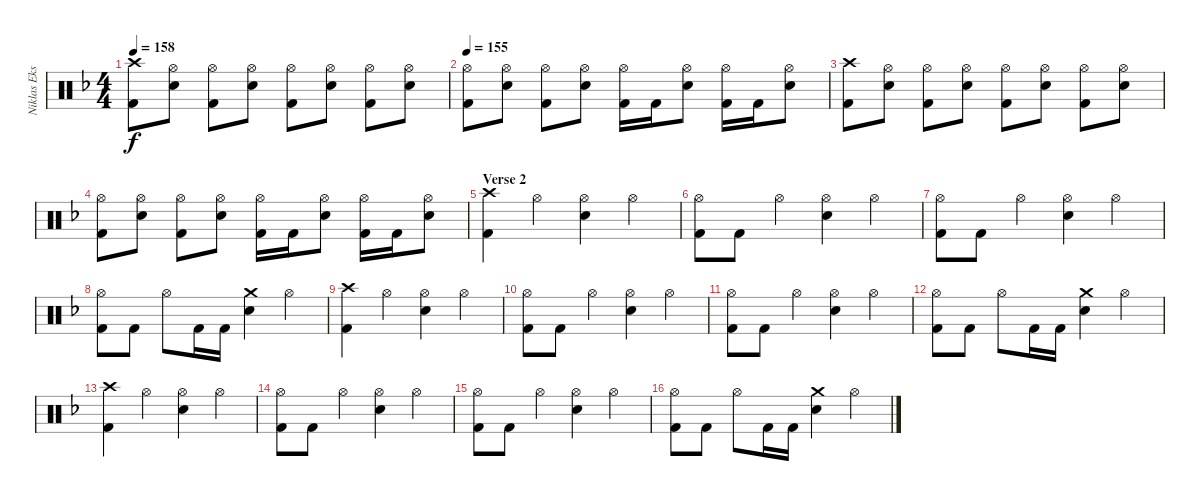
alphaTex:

\track ("Niklas Ekstrand" "Niklas Eks") {instrument percussion}
\staff {score}
\articulation defaults
\ts (4 4)
\tempo 158
\clef neutral
\ks dminor
("Crash high (hit)" "Kick (hit) 2").8{dy f} ("Hi-Hat (open)" "Snare (hit) 2").8 ("Hi-Hat (open)" "Kick (hit) 2").8 ("Hi-Hat (open)" "Snare (hit) 2").8 ("Hi-Hat (open)" "Kick (hit) 2").8 ("Hi-Hat (open)" "Snare (hit) 2").8 ("Hi-Hat (open)" "Kick (hit) 2").8 ("Hi-Hat (open)" "Snare (hit) 2").8 |
\tempo 155
("Hi-Hat (open)" "Kick (hit) 2").8 ("Hi-Hat (open)" "Snare (hit) 2").8 ("Hi-Hat (open)" "Kick (hit) 2").8 ("Hi-Hat (open)" "Snare (hit) 2").8 ("Hi-Hat (open)" "Kick (hit) 2").16 "Kick (hit) 2".16 ("Hi-Hat (open)" "Snare (hit) 2").8 ("Hi-Hat (open)" "Kick (hit) 2").16 "Kick (hit) 2".16 ("Hi-Hat (open)" "Snare (hit) 2").8 |
("Crash high (hit)" "Kick (hit) 2").8 ("Hi-Hat (open)" "Snare (hit) 2").8 ("Hi-Hat (open)" "Kick (hit) 2").8 ("Hi-Hat (open)" "Snare (hit) 2").8 ("Hi-Hat (open)" "Kick (hit) 2").8 ("Hi-Hat (open)" "Snare (hit) 2").8 ("Hi-Hat (open)" "Kick (hit) 2").8 ("Hi-Hat (open)" "Snare (hit) 2").8 |
("Hi-Hat (open)" "Kick (hit) 2").8 ("Hi-Hat (open)" "Snare (hit) 2").8 ("Hi-Hat (open)" "Kick (hit) 2").8 ("Hi-Hat (open)" "Snare (hit) 2").8 ("Hi-Hat (open)" "Kick (hit) 2").16 "Kick (hit) 2".16 ("Hi-Hat (open)" "Snare (hit) 2").8 ("Hi-Hat (open)" "Kick (hit) 2").16 "Kick (hit) 2".16 ("Hi-Hat (open)" "Snare (hit) 2").8 |
\section ("" "Verse 2")
("Crash high (hit)" "Kick (hit) 2").4 "Hi-Hat (open)".4 ("Hi-Hat (open)" "Snare (hit) 2").4 "Hi-Hat (open)".4 |
("Hi-Hat (open)" "Kick (hit) 2").8 "Kick (hit) 2".8 "Hi-Hat (open)".4 ("Hi-Hat (open)" "Snare (hit) 2").4 "Hi-Hat (open)".4 |
("Hi-Hat (open)" "Kick (hit) 2").8 "Kick (hit) 2".8 "Hi-Hat (open)".4 ("Hi-Hat (open)" "Snare (hit) 2").4 "Hi-Hat (open)".4 |
("Hi-Hat (open)" "Kick (hit) 2").8 "Kick (hit) 2".8 "Hi-Hat (open)".8 "Kick (hit) 2".16 "Kick (hit) 2".16 ("Crash medium (hit)" "Snare (hit) 2").4 "Hi-Hat (open)".4 |
("Crash high (hit)" "Kick (hit) 2").4 "Hi-Hat (open)".4 ("Hi-Hat (open)" "Snare (hit) 2").4 "Hi-Hat (open)".4 |
("Hi-Hat (open)" "Kick (hit) 2").8 "Kick (hit) 2".8 "Hi-Hat (open)".4 ("Hi-Hat (open)" "Snare (hit) 2").4 "Hi-Hat (open)".4 |
("Hi-Hat (open)" "Kick (hit) 2").8 "Kick (hit) 2".8 "Hi-Hat (open)".4 ("Hi-Hat (open)" "Snare (hit) 2").4 "Hi-Hat (open)".4 |
("Hi-Hat (open)" "Kick (hit) 2").8 "Kick (hit) 2".8 "Hi-Hat (open)".8 "Kick (hit) 2".16 "Kick (hit) 2".16 ("Crash medium (hit)" "Snare (hit) 2").4 "Hi-Hat (open)".4 |
("Crash high (hit)" "Kick (hit) 2").4 "Hi-Hat (open)".4 ("Hi-Hat (open)" "Snare (hit) 2").4 "Hi-Hat (open)".4 |
("Hi-Hat (open)" "Kick (hit) 2").8 "Kick (hit) 2".8 "Hi-Hat (open)".4 ("Hi-Hat (open)" "Snare (hit) 2").4 "Hi-Hat (open)".4 |
("Hi-Hat (open)" "Kick (hit) 2").8 "Kick (hit) 2".8 "Hi-Hat (open)".4 ("Hi-Hat (open)" "Snare (hit) 2").4 "Hi-Hat (open)".4 |
("Hi-Hat (open)" "Kick (hit) 2").8 "Kick (hit) 2".8 "Hi-Hat (open)".8 "Kick (hit) 2".16 "Kick (hit) 2".16 ("Crash medium (hit)" "Snare (hit) 2").4 "Hi-Hat (open)".4
